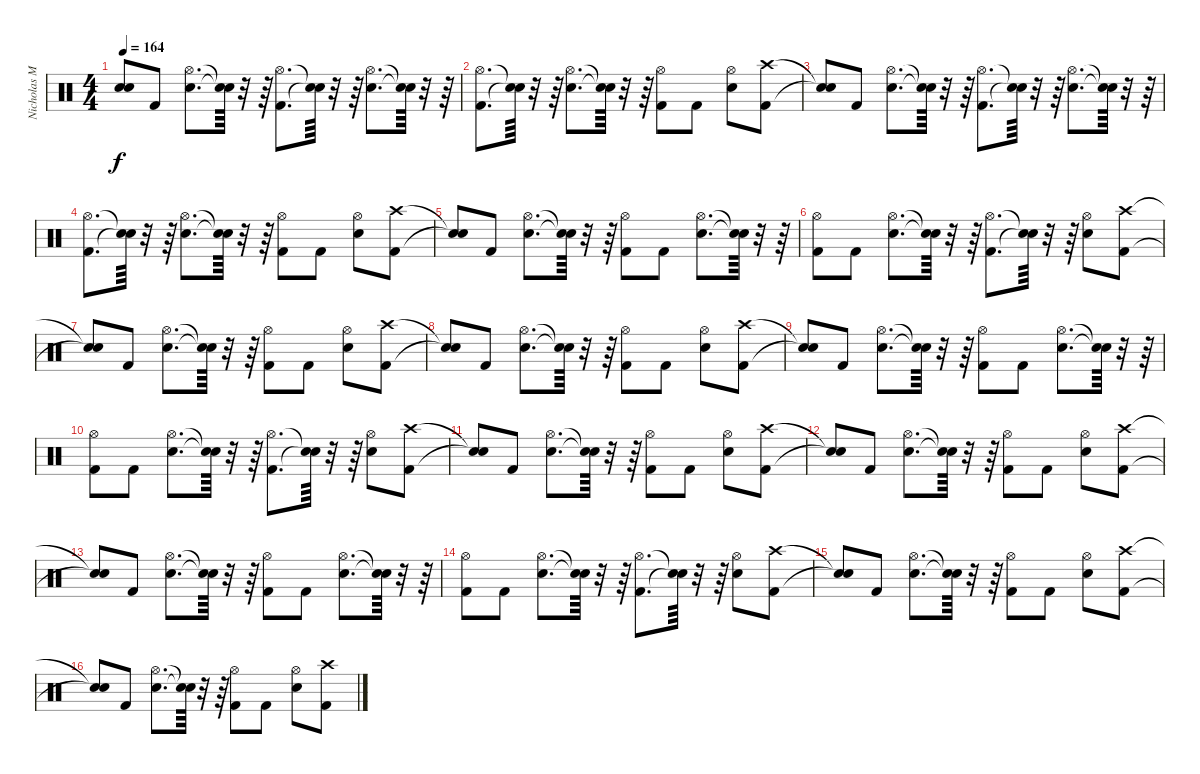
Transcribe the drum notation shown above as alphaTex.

\track ("Nicholas McBrain (Drums)" "Nicholas M") {instrument percussion}
\staff {score}
\articulation defaults
\ts (4 4)
\tempo 164
\clef neutral
\ks c
("Snare (hit)"{t} "Snare (hit)"{t}).8{dy f} "Kick (hit) 2".8 ("Snare (hit) 2" "Hi-Hat (open)").8{d} ("Snare (hit)"{t} "Snare (hit)"{t}).64 r.32 r.64 ("Kick (hit) 2" "Hi-Hat (open)").8{d} ("Snare (hit)"{t} "Snare (hit)"{t}).64 r.32 r.64 ("Snare (hit) 2" "Hi-Hat (open)").8{d} ("Snare (hit)"{t} "Snare (hit)"{t}).64 r.32 r.64 |
("Kick (hit) 2" "Hi-Hat (open)").8{d} ("Snare (hit)"{t} "Snare (hit)"{t}).64 r.32 r.64 ("Snare (hit) 2" "Hi-Hat (open)").8{d} ("Snare (hit)"{t} "Snare (hit)"{t}).64 r.32 r.64 ("Kick (hit) 2" "Hi-Hat (open)").8 "Kick (hit) 2".8 ("Snare (hit) 2" "Hi-Hat (open)").8 ("Kick (hit) 2" "Crash high (hit)").8 |
("Snare (hit)"{t} "Snare (hit)"{t}).8 "Kick (hit) 2".8 ("Snare (hit) 2" "Hi-Hat (open)").8{d} ("Snare (hit)"{t} "Snare (hit)"{t}).64 r.32 r.64 ("Kick (hit) 2" "Hi-Hat (open)").8{d} ("Snare (hit)"{t} "Snare (hit)"{t}).64 r.32 r.64 ("Snare (hit) 2" "Hi-Hat (open)").8{d} ("Snare (hit)"{t} "Snare (hit)"{t}).64 r.32 r.64 |
("Kick (hit) 2" "Hi-Hat (open)").8{d} ("Snare (hit)"{t} "Snare (hit)"{t}).64 r.32 r.64 ("Snare (hit) 2" "Hi-Hat (open)").8{d} ("Snare (hit)"{t} "Snare (hit)"{t}).64 r.32 r.64 ("Kick (hit) 2" "Hi-Hat (open)").8 "Kick (hit) 2".8 ("Snare (hit) 2" "Hi-Hat (open)").8 ("Kick (hit) 2" "Crash high (hit)").8 |
("Snare (hit)"{t} "Snare (hit)"{t}).8 "Kick (hit) 2".8 ("Snare (hit) 2" "Hi-Hat (open)").8{d} ("Snare (hit)"{t} "Snare (hit)"{t}).64 r.32 r.64 ("Kick (hit) 2" "Hi-Hat (open)").8 "Kick (hit) 2".8 ("Snare (hit) 2" "Hi-Hat (open)").8{d} ("Snare (hit)"{t} "Snare (hit)"{t}).64 r.32 r.64 |
("Kick (hit) 2" "Hi-Hat (open)").8 "Kick (hit) 2".8 ("Snare (hit) 2" "Hi-Hat (open)").8{d} ("Snare (hit)"{t} "Snare (hit)"{t}).64 r.32 r.64 ("Kick (hit) 2" "Hi-Hat (open)").8{d} ("Snare (hit)"{t} "Snare (hit)"{t}).64 r.32 r.64 ("Snare (hit) 2" "Hi-Hat (open)").8 ("Kick (hit) 2" "Crash high (hit)").8 |
("Snare (hit)"{t} "Snare (hit)"{t}).8 "Kick (hit) 2".8 ("Snare (hit) 2" "Hi-Hat (open)").8{d} ("Snare (hit)"{t} "Snare (hit)"{t}).64 r.32 r.64 ("Kick (hit) 2" "Hi-Hat (open)").8 "Kick (hit) 2".8 ("Snare (hit) 2" "Hi-Hat (open)").8 ("Kick (hit) 2" "Crash high (hit)").8 |
("Snare (hit)"{t} "Snare (hit)"{t}).8 "Kick (hit) 2".8 ("Snare (hit) 2" "Hi-Hat (open)").8{d} ("Snare (hit)"{t} "Snare (hit)"{t}).64 r.32 r.64 ("Kick (hit) 2" "Hi-Hat (open)").8 "Kick (hit) 2".8 ("Snare (hit) 2" "Hi-Hat (open)").8 ("Kick (hit) 2" "Crash high (hit)").8 |
("Snare (hit)"{t} "Snare (hit)"{t}).8 "Kick (hit) 2".8 ("Snare (hit) 2" "Hi-Hat (open)").8{d} ("Snare (hit)"{t} "Snare (hit)"{t}).64 r.32 r.64 ("Kick (hit) 2" "Hi-Hat (open)").8 "Kick (hit) 2".8 ("Snare (hit) 2" "Hi-Hat (open)").8{d} ("Snare (hit)"{t} "Snare (hit)"{t}).64 r.32 r.64 |
("Kick (hit) 2" "Hi-Hat (open)").8 "Kick (hit) 2".8 ("Snare (hit) 2" "Hi-Hat (open)").8{d} ("Snare (hit)"{t} "Snare (hit)"{t}).64 r.32 r.64 ("Kick (hit) 2" "Hi-Hat (open)").8{d} ("Snare (hit)"{t} "Snare (hit)"{t}).64 r.32 r.64 ("Snare (hit) 2" "Hi-Hat (open)").8 ("Kick (hit) 2" "Crash high (hit)").8 |
("Snare (hit)"{t} "Snare (hit)"{t}).8 "Kick (hit) 2".8 ("Snare (hit) 2" "Hi-Hat (open)").8{d} ("Snare (hit)"{t} "Snare (hit)"{t}).64 r.32 r.64 ("Kick (hit) 2" "Hi-Hat (open)").8 "Kick (hit) 2".8 ("Snare (hit) 2" "Hi-Hat (open)").8 ("Kick (hit) 2" "Crash high (hit)").8 |
("Snare (hit)"{t} "Snare (hit)"{t}).8 "Kick (hit) 2".8 ("Snare (hit) 2" "Hi-Hat (open)").8{d} ("Snare (hit)"{t} "Snare (hit)"{t}).64 r.32 r.64 ("Kick (hit) 2" "Hi-Hat (open)").8 "Kick (hit) 2".8 ("Snare (hit) 2" "Hi-Hat (open)").8 ("Kick (hit) 2" "Crash high (hit)").8 |
("Snare (hit)"{t} "Snare (hit)"{t}).8 "Kick (hit) 2".8 ("Snare (hit) 2" "Hi-Hat (open)").8{d} ("Snare (hit)"{t} "Snare (hit)"{t}).64 r.32 r.64 ("Kick (hit) 2" "Hi-Hat (open)").8 "Kick (hit) 2".8 ("Snare (hit) 2" "Hi-Hat (open)").8{d} ("Snare (hit)"{t} "Snare (hit)"{t}).64 r.32 r.64 |
("Kick (hit) 2" "Hi-Hat (open)").8 "Kick (hit) 2".8 ("Snare (hit) 2" "Hi-Hat (open)").8{d} ("Snare (hit)"{t} "Snare (hit)"{t}).64 r.32 r.64 ("Kick (hit) 2" "Hi-Hat (open)").8{d} ("Snare (hit)"{t} "Snare (hit)"{t}).64 r.32 r.64 ("Snare (hit) 2" "Hi-Hat (open)").8 ("Kick (hit) 2" "Crash high (hit)").8 |
("Snare (hit)"{t} "Snare (hit)"{t}).8 "Kick (hit) 2".8 ("Snare (hit) 2" "Hi-Hat (open)").8{d} ("Snare (hit)"{t} "Snare (hit)"{t}).64 r.32 r.64 ("Kick (hit) 2" "Hi-Hat (open)").8 "Kick (hit) 2".8 ("Snare (hit) 2" "Hi-Hat (open)").8 ("Kick (hit) 2" "Crash high (hit)").8 |
("Snare (hit)"{t} "Snare (hit)"{t}).8 "Kick (hit) 2".8 ("Snare (hit) 2" "Hi-Hat (open)").8{d} ("Snare (hit)"{t} "Snare (hit)"{t}).64 r.32 r.64 ("Kick (hit) 2" "Hi-Hat (open)").8 "Kick (hit) 2".8 ("Snare (hit) 2" "Hi-Hat (open)").8 ("Kick (hit) 2" "Crash high (hit)").8
